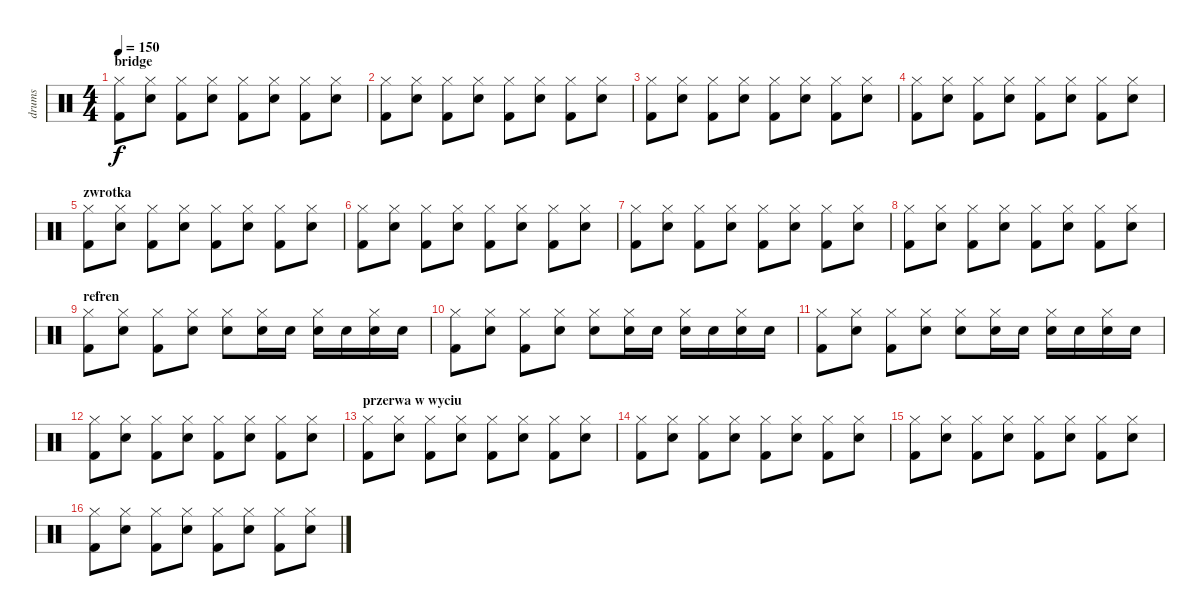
\track ("drums" "drums") {instrument percussion}
\staff {score}
\articulation defaults
\ts (4 4)
\section ("" "bridge")
\tempo 150
\clef neutral
\ks c
("Hi-Hat (closed)" "Kick (hit) 2").8{dy f} ("Hi-Hat (closed)" "Snare (hit) 2").8 ("Hi-Hat (closed)" "Kick (hit) 2").8 ("Hi-Hat (closed)" "Snare (hit) 2").8 ("Hi-Hat (closed)" "Kick (hit) 2").8 ("Hi-Hat (closed)" "Snare (hit) 2").8 ("Hi-Hat (closed)" "Kick (hit) 2").8 ("Hi-Hat (closed)" "Snare (hit) 2").8 |
("Hi-Hat (closed)" "Kick (hit) 2").8 ("Hi-Hat (closed)" "Snare (hit) 2").8 ("Hi-Hat (closed)" "Kick (hit) 2").8 ("Hi-Hat (closed)" "Snare (hit) 2").8 ("Hi-Hat (closed)" "Kick (hit) 2").8 ("Hi-Hat (closed)" "Snare (hit) 2").8 ("Hi-Hat (closed)" "Kick (hit) 2").8 ("Hi-Hat (closed)" "Snare (hit) 2").8 |
("Hi-Hat (closed)" "Kick (hit) 2").8 ("Hi-Hat (closed)" "Snare (hit) 2").8 ("Hi-Hat (closed)" "Kick (hit) 2").8 ("Hi-Hat (closed)" "Snare (hit) 2").8 ("Hi-Hat (closed)" "Kick (hit) 2").8 ("Hi-Hat (closed)" "Snare (hit) 2").8 ("Hi-Hat (closed)" "Kick (hit) 2").8 ("Hi-Hat (closed)" "Snare (hit) 2").8 |
("Hi-Hat (closed)" "Kick (hit) 2").8 ("Hi-Hat (closed)" "Snare (hit) 2").8 ("Hi-Hat (closed)" "Kick (hit) 2").8 ("Hi-Hat (closed)" "Snare (hit) 2").8 ("Hi-Hat (closed)" "Kick (hit) 2").8 ("Hi-Hat (closed)" "Snare (hit) 2").8 ("Hi-Hat (closed)" "Kick (hit) 2").8 ("Hi-Hat (closed)" "Snare (hit) 2").8 |
\section ("" "zwrotka")
("Hi-Hat (closed)" "Kick (hit) 2").8 ("Hi-Hat (closed)" "Snare (hit) 2").8 ("Hi-Hat (closed)" "Kick (hit) 2").8 ("Hi-Hat (closed)" "Snare (hit) 2").8 ("Hi-Hat (closed)" "Kick (hit) 2").8 ("Hi-Hat (closed)" "Snare (hit) 2").8 ("Hi-Hat (closed)" "Kick (hit) 2").8 ("Hi-Hat (closed)" "Snare (hit) 2").8 |
("Hi-Hat (closed)" "Kick (hit) 2").8 ("Hi-Hat (closed)" "Snare (hit) 2").8 ("Hi-Hat (closed)" "Kick (hit) 2").8 ("Hi-Hat (closed)" "Snare (hit) 2").8 ("Hi-Hat (closed)" "Kick (hit) 2").8 ("Hi-Hat (closed)" "Snare (hit) 2").8 ("Hi-Hat (closed)" "Kick (hit) 2").8 ("Hi-Hat (closed)" "Snare (hit) 2").8 |
("Hi-Hat (closed)" "Kick (hit) 2").8 ("Hi-Hat (closed)" "Snare (hit) 2").8 ("Hi-Hat (closed)" "Kick (hit) 2").8 ("Hi-Hat (closed)" "Snare (hit) 2").8 ("Hi-Hat (closed)" "Kick (hit) 2").8 ("Hi-Hat (closed)" "Snare (hit) 2").8 ("Hi-Hat (closed)" "Kick (hit) 2").8 ("Hi-Hat (closed)" "Snare (hit) 2").8 |
("Hi-Hat (closed)" "Kick (hit) 2").8 ("Hi-Hat (closed)" "Snare (hit) 2").8 ("Hi-Hat (closed)" "Kick (hit) 2").8 ("Hi-Hat (closed)" "Snare (hit) 2").8 ("Hi-Hat (closed)" "Kick (hit) 2").8 ("Hi-Hat (closed)" "Snare (hit) 2").8 ("Hi-Hat (closed)" "Kick (hit) 2").8 ("Hi-Hat (closed)" "Snare (hit) 2").8 |
\section ("" "refren")
("Hi-Hat (closed)" "Kick (hit) 2").8 ("Hi-Hat (closed)" "Snare (hit) 2").8 ("Hi-Hat (closed)" "Kick (hit) 2").8 ("Hi-Hat (closed)" "Snare (hit) 2").8 ("Hi-Hat (closed)" "Snare (hit) 2").8 ("Hi-Hat (closed)" "Snare (hit) 2").16 "Snare (hit) 2".16 ("Hi-Hat (closed)" "Snare (hit) 2").16 "Snare (hit) 2".16 ("Hi-Hat (closed)" "Snare (hit) 2").16 "Snare (hit) 2".16 |
("Hi-Hat (closed)" "Kick (hit) 2").8 ("Hi-Hat (closed)" "Snare (hit) 2").8 ("Hi-Hat (closed)" "Kick (hit) 2").8 ("Hi-Hat (closed)" "Snare (hit) 2").8 ("Hi-Hat (closed)" "Snare (hit) 2").8 ("Hi-Hat (closed)" "Snare (hit) 2").16 "Snare (hit) 2".16 ("Hi-Hat (closed)" "Snare (hit) 2").16 "Snare (hit) 2".16 ("Hi-Hat (closed)" "Snare (hit) 2").16 "Snare (hit) 2".16 |
("Hi-Hat (closed)" "Kick (hit) 2").8 ("Hi-Hat (closed)" "Snare (hit) 2").8 ("Hi-Hat (closed)" "Kick (hit) 2").8 ("Hi-Hat (closed)" "Snare (hit) 2").8 ("Hi-Hat (closed)" "Snare (hit) 2").8 ("Hi-Hat (closed)" "Snare (hit) 2").16 "Snare (hit) 2".16 ("Hi-Hat (closed)" "Snare (hit) 2").16 "Snare (hit) 2".16 ("Hi-Hat (closed)" "Snare (hit) 2").16 "Snare (hit) 2".16 |
("Hi-Hat (closed)" "Kick (hit) 2").8 ("Hi-Hat (closed)" "Snare (hit) 2").8 ("Hi-Hat (closed)" "Kick (hit) 2").8 ("Hi-Hat (closed)" "Snare (hit) 2").8 ("Hi-Hat (closed)" "Kick (hit) 2").8 ("Hi-Hat (closed)" "Snare (hit) 2").8 ("Hi-Hat (closed)" "Kick (hit) 2").8 ("Hi-Hat (closed)" "Snare (hit) 2").8 |
\section ("" "przerwa w wyciu")
("Hi-Hat (closed)" "Kick (hit) 2").8 ("Hi-Hat (closed)" "Snare (hit) 2").8 ("Hi-Hat (closed)" "Kick (hit) 2").8 ("Hi-Hat (closed)" "Snare (hit) 2").8 ("Hi-Hat (closed)" "Kick (hit) 2").8 ("Hi-Hat (closed)" "Snare (hit) 2").8 ("Hi-Hat (closed)" "Kick (hit) 2").8 ("Hi-Hat (closed)" "Snare (hit) 2").8 |
("Hi-Hat (closed)" "Kick (hit) 2").8 ("Hi-Hat (closed)" "Snare (hit) 2").8 ("Hi-Hat (closed)" "Kick (hit) 2").8 ("Hi-Hat (closed)" "Snare (hit) 2").8 ("Hi-Hat (closed)" "Kick (hit) 2").8 ("Hi-Hat (closed)" "Snare (hit) 2").8 ("Hi-Hat (closed)" "Kick (hit) 2").8 ("Hi-Hat (closed)" "Snare (hit) 2").8 |
("Hi-Hat (closed)" "Kick (hit) 2").8 ("Hi-Hat (closed)" "Snare (hit) 2").8 ("Hi-Hat (closed)" "Kick (hit) 2").8 ("Hi-Hat (closed)" "Snare (hit) 2").8 ("Hi-Hat (closed)" "Kick (hit) 2").8 ("Hi-Hat (closed)" "Snare (hit) 2").8 ("Hi-Hat (closed)" "Kick (hit) 2").8 ("Hi-Hat (closed)" "Snare (hit) 2").8 |
("Hi-Hat (closed)" "Kick (hit) 2").8 ("Hi-Hat (closed)" "Snare (hit) 2").8 ("Hi-Hat (closed)" "Kick (hit) 2").8 ("Hi-Hat (closed)" "Snare (hit) 2").8 ("Hi-Hat (closed)" "Kick (hit) 2").8 ("Hi-Hat (closed)" "Snare (hit) 2").8 ("Hi-Hat (closed)" "Kick (hit) 2").8 ("Hi-Hat (closed)" "Snare (hit) 2").8
